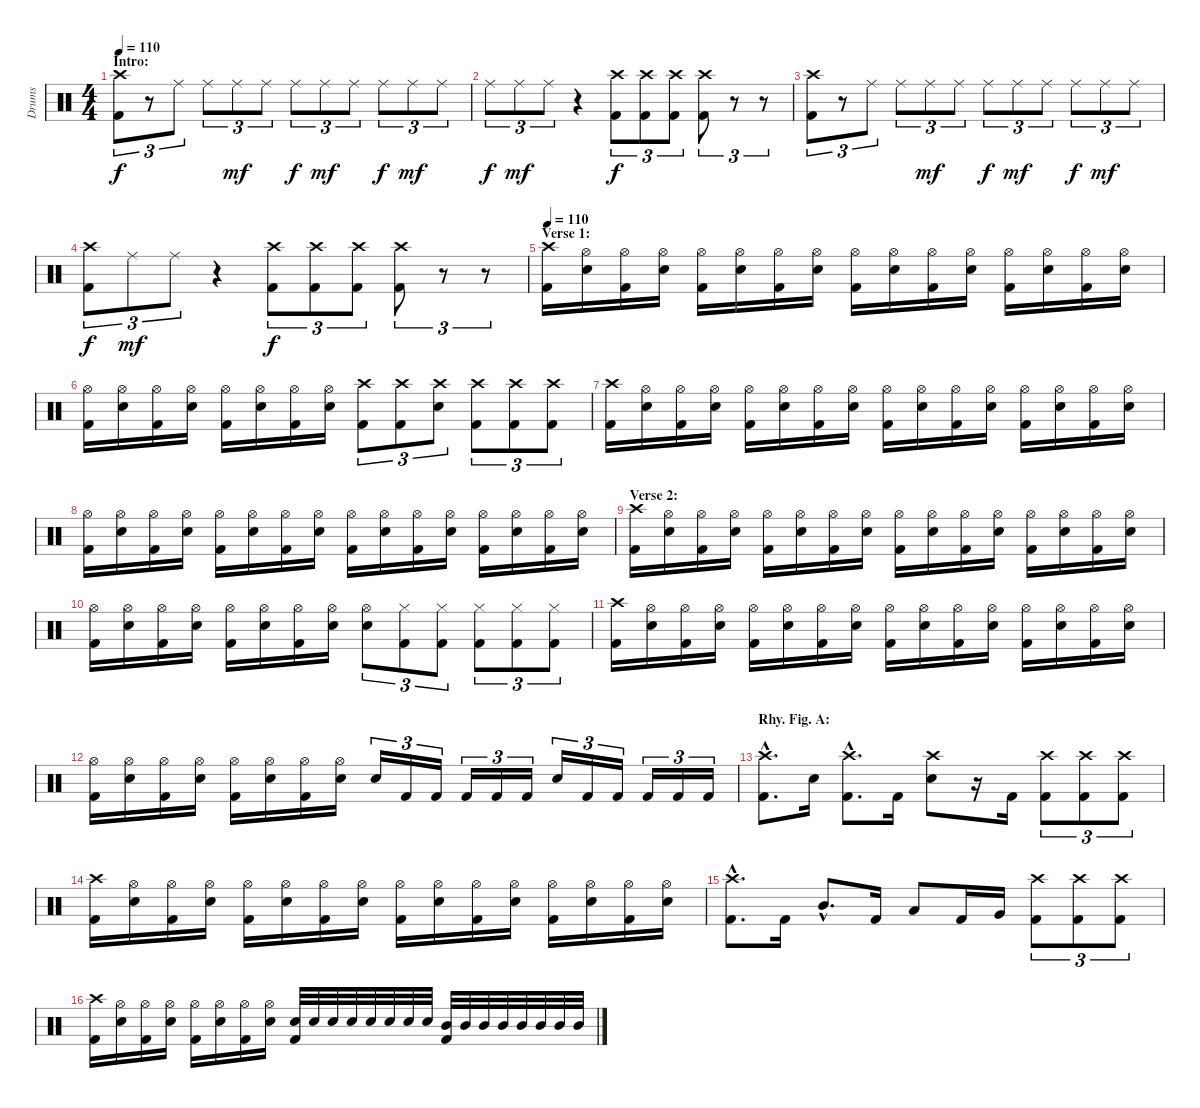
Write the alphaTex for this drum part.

\track ("Drums" "Drums") {instrument percussion}
\staff {score}
\articulation defaults
\ts (4 4)
\section ("" "Intro:")
\tempo 110
\clef neutral
\ks c
("Crash high (hit)" "Kick (hit) 2").8{tu (3 2) dy f} r.8{tu (3 2)} "Ride (middle)".8{tu (3 2)} "Ride (middle)".8{tu (3 2)} "Ride (middle)".8{tu (3 2) dy mf} "Ride (middle)".8{tu (3 2)} "Ride (middle)".8{tu (3 2) dy f} "Ride (middle)".8{tu (3 2) dy mf} "Ride (middle)".8{tu (3 2)} "Ride (middle)".8{tu (3 2) dy f} "Ride (middle)".8{tu (3 2) dy mf} "Ride (middle)".8{tu (3 2)} |
"Ride (middle)".8{tu (3 2) dy f} "Ride (middle)".8{tu (3 2) dy mf} "Ride (middle)".8{tu (3 2)} r.4 ("Crash high (hit)" "Kick (hit) 2").8{tu (3 2) dy f} ("Crash high (hit)" "Kick (hit) 2").8{tu (3 2)} ("Crash high (hit)" "Kick (hit) 2").8{tu (3 2)} ("Crash high (hit)" "Kick (hit) 2").8{tu (3 2)} r.8{tu (3 2)} r.8{tu (3 2)} |
("Crash high (hit)" "Kick (hit) 2").8{tu (3 2)} r.8{tu (3 2)} "Ride (middle)".8{tu (3 2)} "Ride (middle)".8{tu (3 2)} "Ride (middle)".8{tu (3 2) dy mf} "Ride (middle)".8{tu (3 2)} "Ride (middle)".8{tu (3 2) dy f} "Ride (middle)".8{tu (3 2) dy mf} "Ride (middle)".8{tu (3 2)} "Ride (middle)".8{tu (3 2) dy f} "Ride (middle)".8{tu (3 2) dy mf} "Ride (middle)".8{tu (3 2)} |
("Crash high (hit)" "Kick (hit) 2").8{tu (3 2) dy f} "Ride (middle)".8{tu (3 2) dy mf} "Ride (middle)".8{tu (3 2)} r.4 ("Crash high (hit)" "Kick (hit) 2").8{tu (3 2) dy f} ("Crash high (hit)" "Kick (hit) 2").8{tu (3 2)} ("Crash high (hit)" "Kick (hit) 2").8{tu (3 2)} ("Crash high (hit)" "Kick (hit) 2").8{tu (3 2)} r.8{tu (3 2)} r.8{tu (3 2)} |
\section ("" "Verse 1:")
\tempo 110
("Crash high (hit)" "Kick (hit) 2").16 ("Hi-Hat (open)" "Electric Snare (hit)").16 ("Hi-Hat (open)" "Kick (hit) 2").16 ("Hi-Hat (open)" "Electric Snare (hit)").16 ("Hi-Hat (open)" "Kick (hit) 2").16 ("Hi-Hat (open)" "Electric Snare (hit)").16 ("Hi-Hat (open)" "Kick (hit) 2").16 ("Hi-Hat (open)" "Electric Snare (hit)").16 ("Hi-Hat (open)" "Kick (hit) 2").16 ("Hi-Hat (open)" "Electric Snare (hit)").16 ("Hi-Hat (open)" "Kick (hit) 2").16 ("Hi-Hat (open)" "Electric Snare (hit)").16 ("Hi-Hat (open)" "Kick (hit) 2").16 ("Hi-Hat (open)" "Electric Snare (hit)").16 ("Hi-Hat (open)" "Kick (hit) 2").16 ("Hi-Hat (open)" "Electric Snare (hit)").16 |
("Hi-Hat (open)" "Kick (hit) 2").16 ("Hi-Hat (open)" "Electric Snare (hit)").16 ("Hi-Hat (open)" "Kick (hit) 2").16 ("Hi-Hat (open)" "Electric Snare (hit)").16 ("Hi-Hat (open)" "Kick (hit) 2").16 ("Hi-Hat (open)" "Electric Snare (hit)").16 ("Hi-Hat (open)" "Kick (hit) 2").16 ("Hi-Hat (open)" "Electric Snare (hit)").16 ("Crash high (hit)" "Kick (hit) 2").8{tu (3 2)} ("Crash high (hit)" "Kick (hit) 2").8{tu (3 2)} ("Crash high (hit)" "Electric Snare (hit)").8{tu (3 2)} ("Crash high (hit)" "Kick (hit) 2").8{tu (3 2)} ("Crash high (hit)" "Kick (hit) 2").8{tu (3 2)} ("Crash high (hit)" "Kick (hit) 2").8{tu (3 2)} |
("Crash high (hit)" "Kick (hit) 2").16 ("Hi-Hat (open)" "Electric Snare (hit)").16 ("Hi-Hat (open)" "Kick (hit) 2").16 ("Hi-Hat (open)" "Electric Snare (hit)").16 ("Hi-Hat (open)" "Kick (hit) 2").16 ("Hi-Hat (open)" "Electric Snare (hit)").16 ("Hi-Hat (open)" "Kick (hit) 2").16 ("Hi-Hat (open)" "Electric Snare (hit)").16 ("Hi-Hat (open)" "Kick (hit) 2").16 ("Hi-Hat (open)" "Electric Snare (hit)").16 ("Hi-Hat (open)" "Kick (hit) 2").16 ("Hi-Hat (open)" "Electric Snare (hit)").16 ("Hi-Hat (open)" "Kick (hit) 2").16 ("Hi-Hat (open)" "Electric Snare (hit)").16 ("Hi-Hat (open)" "Kick (hit) 2").16 ("Hi-Hat (open)" "Electric Snare (hit)").16 |
("Hi-Hat (open)" "Kick (hit) 2").16 ("Hi-Hat (open)" "Electric Snare (hit)").16 ("Hi-Hat (open)" "Kick (hit) 2").16 ("Hi-Hat (open)" "Electric Snare (hit)").16 ("Hi-Hat (open)" "Kick (hit) 2").16 ("Hi-Hat (open)" "Electric Snare (hit)").16 ("Hi-Hat (open)" "Kick (hit) 2").16 ("Hi-Hat (open)" "Electric Snare (hit)").16 ("Hi-Hat (open)" "Kick (hit) 2").16 ("Hi-Hat (open)" "Electric Snare (hit)").16 ("Hi-Hat (open)" "Kick (hit) 2").16 ("Hi-Hat (open)" "Electric Snare (hit)").16 ("Hi-Hat (open)" "Kick (hit) 2").16 ("Hi-Hat (open)" "Electric Snare (hit)").16 ("Hi-Hat (open)" "Kick (hit) 2").16 ("Hi-Hat (open)" "Electric Snare (hit)").16 |
\section ("" "Verse 2:")
("Crash high (hit)" "Kick (hit) 2").16 ("Hi-Hat (open)" "Electric Snare (hit)").16 ("Hi-Hat (open)" "Kick (hit) 2").16 ("Hi-Hat (open)" "Electric Snare (hit)").16 ("Hi-Hat (open)" "Kick (hit) 2").16 ("Hi-Hat (open)" "Electric Snare (hit)").16 ("Hi-Hat (open)" "Kick (hit) 2").16 ("Hi-Hat (open)" "Electric Snare (hit)").16 ("Hi-Hat (open)" "Kick (hit) 2").16 ("Hi-Hat (open)" "Electric Snare (hit)").16 ("Hi-Hat (open)" "Kick (hit) 2").16 ("Hi-Hat (open)" "Electric Snare (hit)").16 ("Hi-Hat (open)" "Kick (hit) 2").16 ("Hi-Hat (open)" "Electric Snare (hit)").16 ("Hi-Hat (open)" "Kick (hit) 2").16 ("Hi-Hat (open)" "Electric Snare (hit)").16 |
("Hi-Hat (open)" "Kick (hit) 2").16 ("Hi-Hat (open)" "Electric Snare (hit)").16 ("Hi-Hat (open)" "Kick (hit) 2").16 ("Hi-Hat (open)" "Electric Snare (hit)").16 ("Hi-Hat (open)" "Kick (hit) 2").16 ("Hi-Hat (open)" "Electric Snare (hit)").16 ("Hi-Hat (open)" "Kick (hit) 2").16 ("Hi-Hat (open)" "Electric Snare (hit)").16 ("Hi-Hat (open)" "Electric Snare (hit)").8{tu (3 2)} ("Hi-Hat (closed)" "Kick (hit) 2").8{tu (3 2)} ("Hi-Hat (closed)" "Kick (hit) 2").8{tu (3 2)} ("Hi-Hat (closed)" "Kick (hit) 2").8{tu (3 2)} ("Hi-Hat (closed)" "Kick (hit) 2").8{tu (3 2)} ("Hi-Hat (closed)" "Kick (hit) 2").8{tu (3 2)} |
("Crash high (hit)" "Kick (hit) 2").16 ("Hi-Hat (open)" "Electric Snare (hit)").16 ("Hi-Hat (open)" "Kick (hit) 2").16 ("Hi-Hat (open)" "Electric Snare (hit)").16 ("Hi-Hat (open)" "Kick (hit) 2").16 ("Hi-Hat (open)" "Electric Snare (hit)").16 ("Hi-Hat (open)" "Kick (hit) 2").16 ("Hi-Hat (open)" "Electric Snare (hit)").16 ("Hi-Hat (open)" "Kick (hit) 2").16 ("Hi-Hat (open)" "Electric Snare (hit)").16 ("Hi-Hat (open)" "Kick (hit) 2").16 ("Hi-Hat (open)" "Electric Snare (hit)").16 ("Hi-Hat (open)" "Kick (hit) 2").16 ("Hi-Hat (open)" "Electric Snare (hit)").16 ("Hi-Hat (open)" "Kick (hit) 2").16 ("Hi-Hat (open)" "Electric Snare (hit)").16 |
("Hi-Hat (open)" "Kick (hit) 2").16 ("Hi-Hat (open)" "Electric Snare (hit)").16 ("Hi-Hat (open)" "Kick (hit) 2").16 ("Hi-Hat (open)" "Electric Snare (hit)").16 ("Hi-Hat (open)" "Kick (hit) 2").16 ("Hi-Hat (open)" "Electric Snare (hit)").16 ("Hi-Hat (open)" "Kick (hit) 2").16 ("Hi-Hat (open)" "Electric Snare (hit)").16 "Electric Snare (hit)".16{tu (3 2)} "Kick (hit) 2".16{tu (3 2)} "Kick (hit) 2".16{tu (3 2)} "Kick (hit) 2".16{tu (3 2)} "Kick (hit) 2".16{tu (3 2)} "Kick (hit) 2".16{tu (3 2)} "Electric Snare (hit)".16{tu (3 2)} "Kick (hit) 2".16{tu (3 2)} "Kick (hit) 2".16{tu (3 2)} "Kick (hit) 2".16{tu (3 2)} "Kick (hit) 2".16{tu (3 2)} "Kick (hit) 2".16{tu (3 2)} |
\section ("" "Rhy. Fig. A:")
("Crash high (hit)"{hac} "Kick (hit) 2"{hac}).8{d} "Electric Snare (hit)".16 ("Crash high (hit)"{hac} "Kick (hit) 2"{hac}).8{d} "Kick (hit) 2".16 ("Crash high (hit)" "Electric Snare (hit)").8 r.16 "Kick (hit) 2".16 ("Crash high (hit)" "Kick (hit) 2").8{tu (3 2)} ("Crash high (hit)" "Kick (hit) 2").8{tu (3 2)} ("Crash high (hit)" "Kick (hit) 2").8{tu (3 2)} |
("Crash high (hit)" "Kick (hit) 2").16 ("Hi-Hat (open)" "Electric Snare (hit)").16 ("Hi-Hat (open)" "Kick (hit) 2").16 ("Hi-Hat (open)" "Electric Snare (hit)").16 ("Hi-Hat (open)" "Kick (hit) 2").16 ("Hi-Hat (open)" "Electric Snare (hit)").16 ("Hi-Hat (open)" "Kick (hit) 2").16 ("Hi-Hat (open)" "Electric Snare (hit)").16 ("Hi-Hat (open)" "Kick (hit) 2").16 ("Hi-Hat (open)" "Electric Snare (hit)").16 ("Hi-Hat (open)" "Kick (hit) 2").16 ("Hi-Hat (open)" "Electric Snare (hit)").16 ("Hi-Hat (open)" "Kick (hit) 2").16 ("Hi-Hat (open)" "Electric Snare (hit)").16 ("Hi-Hat (open)" "Kick (hit) 2").16 ("Hi-Hat (open)" "Electric Snare (hit)").16 |
("Crash high (hit)"{hac} "Kick (hit) 2"{hac}).8{d} "Kick (hit) 2".16 "Mid Tom (hit)"{hac}.8{d} "Kick (hit) 2".16 "Low Tom (hit)".8 "Kick (hit) 2".16 "Very Low Tom (hit)".16 ("Crash high (hit)" "Kick (hit) 2").8{tu (3 2)} ("Crash high (hit)" "Kick (hit) 2").8{tu (3 2)} ("Crash high (hit)" "Kick (hit) 2").8{tu (3 2)} |
("Crash high (hit)" "Kick (hit) 2").16 ("Hi-Hat (open)" "Electric Snare (hit)").16 ("Hi-Hat (open)" "Kick (hit) 2").16 ("Hi-Hat (open)" "Electric Snare (hit)").16 ("Hi-Hat (open)" "Kick (hit) 2").16 ("Hi-Hat (open)" "Electric Snare (hit)").16 ("Hi-Hat (open)" "Kick (hit) 2").16 ("Hi-Hat (open)" "Electric Snare (hit)").16 ("Electric Snare (hit)" "Kick (hit) 2").32 "Electric Snare (hit)".32 "Electric Snare (hit)".32 "Electric Snare (hit)".32 "Electric Snare (hit)".32 "Electric Snare (hit)".32 "Electric Snare (hit)".32 "Electric Snare (hit)".32 ("Mid Tom (hit)" "Kick (hit) 2").32 "Mid Tom (hit)".32 "Mid Tom (hit)".32 "Mid Tom (hit)".32 "Mid Tom (hit)".32 "Mid Tom (hit)".32 "Mid Tom (hit)".32 "Mid Tom (hit)".32
